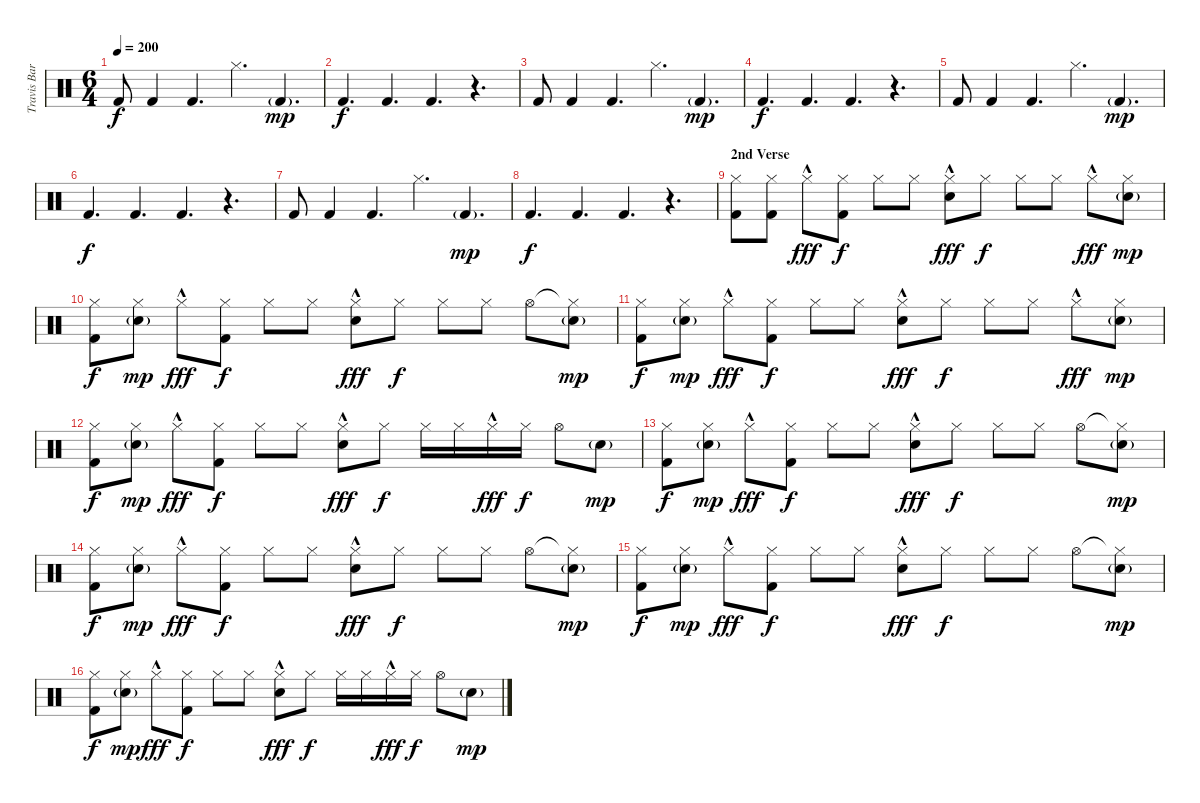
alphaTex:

\track ("Travis Barker - Drums" "Travis Bar") {instrument percussion}
\staff {score}
\articulation defaults
\ts (6 4)
\tempo 200
\clef neutral
\ks c "Kick (hit) 2".8{dy f} "Kick (hit) 2".4 "Kick (hit) 2".4{d} "Hi-Hat (closed)".4{d} "Kick (hit) 2"{g}.4{d dy mp}
|
"Kick (hit) 2".4{d dy f} "Kick (hit) 2".4{d} "Kick (hit) 2".4{d} r.4{d} |
"Kick (hit) 2".8 "Kick (hit) 2".4 "Kick (hit) 2".4{d} "Hi-Hat (closed)".4{d} "Kick (hit) 2"{g}.4{d dy mp} |
"Kick (hit) 2".4{d dy f} "Kick (hit) 2".4{d} "Kick (hit) 2".4{d} r.4{d} |
"Kick (hit) 2".8 "Kick (hit) 2".4 "Kick (hit) 2".4{d} "Hi-Hat (closed)".4{d} "Kick (hit) 2"{g}.4{d dy mp} |
"Kick (hit) 2".4{d dy f} "Kick (hit) 2".4{d} "Kick (hit) 2".4{d} r.4{d} |
"Kick (hit) 2".8 "Kick (hit) 2".4 "Kick (hit) 2".4{d} "Hi-Hat (closed)".4{d} "Kick (hit) 2"{g}.4{d dy mp} |
"Kick (hit) 2".4{d dy f} "Kick (hit) 2".4{d} "Kick (hit) 2".4{d} r.4{d} |
\section ("" "2nd Verse")
("Hi-Hat (closed)" "Kick (hit) 2").8 ("Hi-Hat (closed)" "Kick (hit) 2").8 "Hi-Hat (closed)"{hac}.8{dy fff} ("Hi-Hat (closed)" "Kick (hit) 2").8{dy f} "Hi-Hat (closed)".8 "Hi-Hat (closed)".8 ("Hi-Hat (closed)"{hac} "Electric Snare (hit)").8{dy fff} "Hi-Hat (closed)".8{dy f} "Hi-Hat (closed)".8 "Hi-Hat (closed)".8 "Hi-Hat (closed)"{hac}.8{dy fff} ("Hi-Hat (closed)" "Electric Snare (hit)"{g}).8{dy mp} |
("Hi-Hat (closed)" "Kick (hit) 2").8{dy f} ("Hi-Hat (closed)" "Electric Snare (hit)"{g}).8{dy mp} "Hi-Hat (closed)"{hac}.8{dy fff} ("Hi-Hat (closed)" "Kick (hit) 2").8{dy f} "Hi-Hat (closed)".8 "Hi-Hat (closed)".8 ("Hi-Hat (closed)"{hac} "Electric Snare (hit)").8{dy fff} "Hi-Hat (closed)".8{dy f} "Hi-Hat (closed)".8 "Hi-Hat (closed)".8 "Hi-Hat (open)".8 ("Hi-Hat (closed)"{t} "Electric Snare (hit)"{g}).8{dy mp} |
("Hi-Hat (closed)" "Kick (hit) 2").8{dy f} ("Hi-Hat (closed)" "Electric Snare (hit)"{g}).8{dy mp} "Hi-Hat (closed)"{hac}.8{dy fff} ("Hi-Hat (closed)" "Kick (hit) 2").8{dy f} "Hi-Hat (closed)".8 "Hi-Hat (closed)".8 ("Hi-Hat (closed)"{hac} "Electric Snare (hit)").8{dy fff} "Hi-Hat (closed)".8{dy f} "Hi-Hat (closed)".8 "Hi-Hat (closed)".8 "Hi-Hat (closed)"{hac}.8{dy fff} ("Hi-Hat (closed)" "Electric Snare (hit)"{g}).8{dy mp} |
("Hi-Hat (closed)" "Kick (hit) 2").8{dy f} ("Hi-Hat (closed)" "Electric Snare (hit)"{g}).8{dy mp} "Hi-Hat (closed)"{hac}.8{dy fff} ("Hi-Hat (closed)" "Kick (hit) 2").8{dy f} "Hi-Hat (closed)".8 "Hi-Hat (closed)".8 ("Hi-Hat (closed)"{hac} "Electric Snare (hit)").8{dy fff} "Hi-Hat (closed)".8{dy f} "Hi-Hat (closed)".16 "Hi-Hat (closed)".16 "Hi-Hat (closed)"{hac}.16{dy fff} "Hi-Hat (closed)".16{dy f} "Hi-Hat (open)".8 "Electric Snare (hit)"{g}.8{dy mp} |
("Hi-Hat (closed)" "Kick (hit) 2").8{dy f} ("Hi-Hat (closed)" "Electric Snare (hit)"{g}).8{dy mp} "Hi-Hat (closed)"{hac}.8{dy fff} ("Hi-Hat (closed)" "Kick (hit) 2").8{dy f} "Hi-Hat (closed)".8 "Hi-Hat (closed)".8 ("Hi-Hat (closed)"{hac} "Electric Snare (hit)").8{dy fff} "Hi-Hat (closed)".8{dy f} "Hi-Hat (closed)".8 "Hi-Hat (closed)".8 "Hi-Hat (open)".8 ("Hi-Hat (closed)"{t} "Electric Snare (hit)"{g}).8{dy mp} |
("Hi-Hat (closed)" "Kick (hit) 2").8{dy f} ("Hi-Hat (closed)" "Electric Snare (hit)"{g}).8{dy mp} "Hi-Hat (closed)"{hac}.8{dy fff} ("Hi-Hat (closed)" "Kick (hit) 2").8{dy f} "Hi-Hat (closed)".8 "Hi-Hat (closed)".8 ("Hi-Hat (closed)"{hac} "Electric Snare (hit)").8{dy fff} "Hi-Hat (closed)".8{dy f} "Hi-Hat (closed)".8 "Hi-Hat (closed)".8 "Hi-Hat (open)".8 ("Hi-Hat (closed)"{t} "Electric Snare (hit)"{g}).8{dy mp} |
("Hi-Hat (closed)" "Kick (hit) 2").8{dy f} ("Hi-Hat (closed)" "Electric Snare (hit)"{g}).8{dy mp} "Hi-Hat (closed)"{hac}.8{dy fff} ("Hi-Hat (closed)" "Kick (hit) 2").8{dy f} "Hi-Hat (closed)".8 "Hi-Hat (closed)".8 ("Hi-Hat (closed)"{hac} "Electric Snare (hit)").8{dy fff} "Hi-Hat (closed)".8{dy f} "Hi-Hat (closed)".8 "Hi-Hat (closed)".8 "Hi-Hat (open)".8 ("Hi-Hat (closed)"{t} "Electric Snare (hit)"{g}).8{dy mp} |
("Hi-Hat (closed)" "Kick (hit) 2").8{dy f} ("Hi-Hat (closed)" "Electric Snare (hit)"{g}).8{dy mp} "Hi-Hat (closed)"{hac}.8{dy fff} ("Hi-Hat (closed)" "Kick (hit) 2").8{dy f} "Hi-Hat (closed)".8 "Hi-Hat (closed)".8 ("Hi-Hat (closed)"{hac} "Electric Snare (hit)").8{dy fff} "Hi-Hat (closed)".8{dy f} "Hi-Hat (closed)".16 "Hi-Hat (closed)".16 "Hi-Hat (closed)"{hac}.16{dy fff} "Hi-Hat (closed)".16{dy f} "Hi-Hat (open)".8 "Electric Snare (hit)"{g}.8{dy mp}
